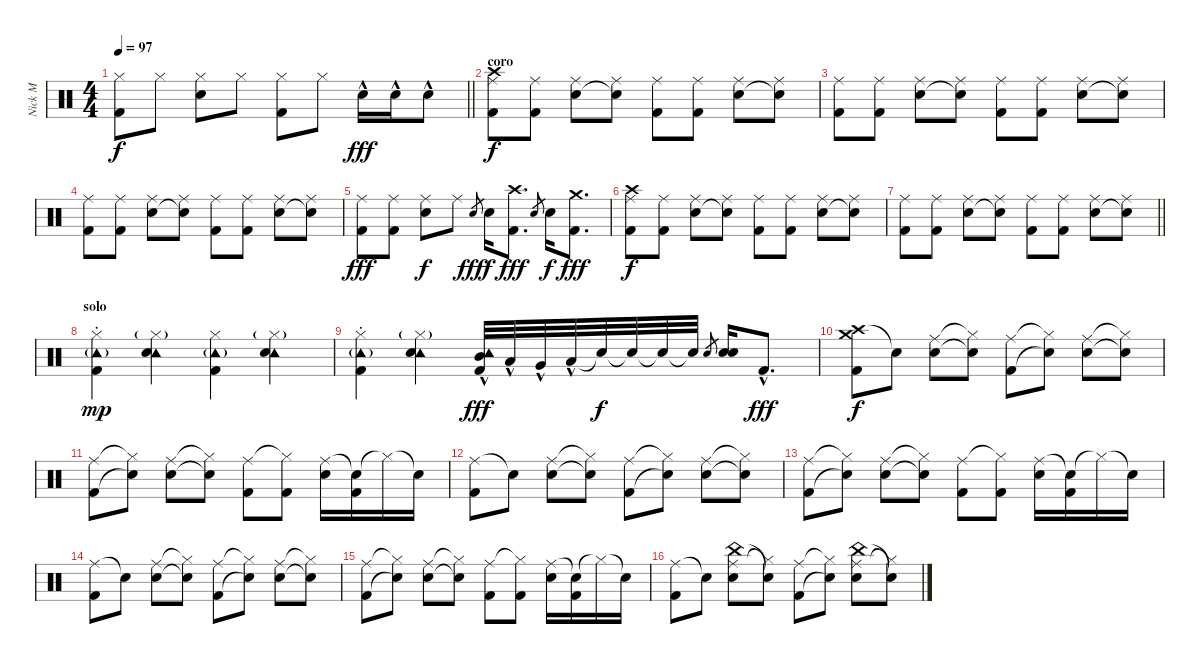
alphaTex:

\track ("Nick M" "Nick M") {instrument percussion}
\staff {score}
\articulation defaults
\ts (4 4)
\tempo 97
\clef neutral
\barLineRight lightlight
\ks c
("Hi-Hat (closed)" "Kick (hit) 2").8{dy f} "Hi-Hat (closed)".8 ("Hi-Hat (closed)" "Snare (hit) 2").8 "Hi-Hat (closed)".8 ("Hi-Hat (closed)" "Kick (hit) 2").8 "Hi-Hat (closed)".8 "Snare (hit) 2"{hac}.16{dy fff} "Snare (hit) 2"{hac}.16 "Snare (hit) 2"{hac}.8 |
\section ("" "coro")
("Ride (middle)" "Crash high (hit)" "Kick (hit) 2").8{dy f} ("Ride (middle)" "Kick (hit) 2").8 ("Ride (middle)" "Snare (hit) 2").8 ("Ride (middle)" "Snare (hit)"{t}).8 ("Ride (middle)" "Kick (hit) 2").8 ("Ride (middle)" "Kick (hit) 2").8 ("Ride (middle)" "Snare (hit) 2").8 ("Ride (middle)" "Snare (hit)"{t}).8 |
("Ride (middle)" "Kick (hit) 2").8 ("Ride (middle)" "Kick (hit) 2").8 ("Ride (middle)" "Snare (hit) 2").8 ("Ride (middle)" "Snare (hit)"{t}).8 ("Ride (middle)" "Kick (hit) 2").8 ("Ride (middle)" "Kick (hit) 2").8 ("Ride (middle)" "Snare (hit) 2").8 ("Ride (middle)" "Snare (hit)"{t}).8 |
("Ride (middle)" "Kick (hit) 2").8 ("Ride (middle)" "Kick (hit) 2").8 ("Ride (middle)" "Snare (hit) 2").8 ("Ride (middle)" "Snare (hit)"{t}).8 ("Ride (middle)" "Kick (hit) 2").8 ("Ride (middle)" "Kick (hit) 2").8 ("Ride (middle)" "Snare (hit) 2").8 ("Ride (middle)" "Snare (hit)"{t}).8 |
("Ride (middle)" "Kick (hit) 2").8{dy fff} ("Ride (middle)" "Kick (hit) 2").8 ("Ride (middle)" "Snare (hit) 2").8{dy f} "Ride (middle)".8 "Snare (hit) 2".8{gr dy fff} "Snare (hit) 2".16{dy f} ("Crash high (hit)" "Kick (hit) 2").8{d dy fff} "Snare (hit) 2".8{gr} "Snare (hit) 2".16{dy f} ("Crash medium (hit)" "Kick (hit) 2").8{d dy fff} |
("Ride (middle)" "Crash high (hit)" "Kick (hit) 2").8{dy f} ("Ride (middle)" "Kick (hit) 2").8 ("Ride (middle)" "Snare (hit) 2").8 ("Ride (middle)" "Snare (hit)"{t}).8 ("Ride (middle)" "Kick (hit) 2").8 ("Ride (middle)" "Kick (hit) 2").8 ("Ride (middle)" "Snare (hit) 2").8 ("Ride (middle)" "Snare (hit)"{t}).8 |
\barLineRight lightlight
("Ride (middle)" "Kick (hit) 2").8 ("Ride (middle)" "Kick (hit) 2").8 ("Ride (middle)" "Snare (hit) 2").8 ("Ride (middle)" "Snare (hit)"{t}).8 ("Ride (middle)" "Kick (hit) 2").8 ("Ride (middle)" "Kick (hit) 2").8 ("Ride (middle)" "Snare (hit) 2").8 ("Ride (middle)" "Snare (hit)"{t}).8 |
\section ("" "solo")
("Tambourine (hit)"{g st} "Hi-Hat (closed)" "Kick (hit) 2").4{dy mp} ("Tambourine (hit)" "Hi-Hat (closed)"{g} "Snare (hit) 2").4 ("Tambourine (hit)"{g} "Hi-Hat (closed)" "Kick (hit) 2").4 ("Tambourine (hit)" "Hi-Hat (closed)"{g} "Snare (hit) 2").4 |
("Tambourine (hit)"{g st} "Hi-Hat (closed)" "Kick (hit) 2").4 ("Tambourine (hit)" "Hi-Hat (closed)"{g} "Snare (hit) 2").4 ("Tambourine (hit)" "Mid Tom (hit)"{hac} "Kick (hit) 2").32{dy fff} "Low Tom (hit)"{hac}.32 "Very Low Tom (hit)"{hac}.32 "Low Floor Tom (hit)"{hac}.32 "Snare (hit)"{t}.32{dy f} "Snare (hit)"{t}.32 "Snare (hit)"{t}.32 "Snare (hit)"{t}.32 "Snare (hit) 2".8{gr} ("Snare (hit) 2" "Snare (hit) 2").16 "Kick (hit) 2"{hac}.8{d dy fff} |
("Crash high (hit)" "Crash medium (hit)" "Kick (hit) 2").8{dy f} "Snare (hit)"{t}.8 ("Ride (middle)" "Snare (hit) 2").8 ("Hi-Hat (closed)"{t} "Snare (hit)"{t}).8 ("Ride (middle)" "Kick (hit) 2").8 ("Hi-Hat (closed)"{t} "Snare (hit)"{t}).8 ("Ride (middle)" "Snare (hit) 2").8 ("Hi-Hat (closed)"{t} "Snare (hit)"{t}).8 |
("Ride (middle)" "Kick (hit) 2").8 ("Hi-Hat (closed)"{t} "Snare (hit)"{t}).8 ("Ride (middle)" "Snare (hit) 2").8 ("Hi-Hat (closed)"{t} "Snare (hit)"{t}).8 ("Ride (middle)" "Kick (hit) 2").8 ("Hi-Hat (closed)"{t} "Kick (hit) 2").8 ("Ride (middle)" "Snare (hit) 2").16 ("Snare (hit)"{t} "Kick (hit) 2").16 "Hi-Hat (closed)"{t}.16 "Snare (hit)"{t}.16 |
("Ride (middle)" "Kick (hit) 2").8 "Snare (hit)"{t}.8 ("Ride (middle)" "Snare (hit) 2").8 ("Hi-Hat (closed)"{t} "Snare (hit)"{t}).8 ("Ride (middle)" "Kick (hit) 2").8 ("Hi-Hat (closed)"{t} "Snare (hit)"{t}).8 ("Ride (middle)" "Snare (hit) 2").8 ("Hi-Hat (closed)"{t} "Snare (hit)"{t}).8 |
("Ride (middle)" "Kick (hit) 2").8 ("Hi-Hat (closed)"{t} "Snare (hit)"{t}).8 ("Ride (middle)" "Snare (hit) 2").8 ("Hi-Hat (closed)"{t} "Snare (hit)"{t}).8 ("Ride (middle)" "Kick (hit) 2").8 ("Hi-Hat (closed)"{t} "Kick (hit) 2").8 ("Ride (middle)" "Snare (hit) 2").16 ("Snare (hit)"{t} "Kick (hit) 2").16 "Hi-Hat (closed)"{t}.16 "Snare (hit)"{t}.16 |
("Ride (middle)" "Kick (hit) 2").8 "Snare (hit)"{t}.8 ("Ride (middle)" "Snare (hit) 2").8 ("Hi-Hat (closed)"{t} "Snare (hit)"{t}).8 ("Ride (middle)" "Kick (hit) 2").8 ("Hi-Hat (closed)"{t} "Snare (hit)"{t}).8 ("Ride (middle)" "Snare (hit) 2").8 ("Hi-Hat (closed)"{t} "Snare (hit)"{t}).8 |
("Ride (middle)" "Kick (hit) 2").8 ("Hi-Hat (closed)"{t} "Snare (hit)"{t}).8 ("Ride (middle)" "Snare (hit) 2").8 ("Hi-Hat (closed)"{t} "Snare (hit)"{t}).8 ("Ride (middle)" "Kick (hit) 2").8 ("Hi-Hat (closed)"{t} "Kick (hit) 2").8 ("Ride (middle)" "Snare (hit) 2").16 ("Snare (hit)"{t} "Kick (hit) 2").16 "Hi-Hat (closed)"{t}.16 "Snare (hit)"{t}.16 |
("Ride (middle)" "Kick (hit) 2").8 "Snare (hit)"{t}.8 ("Ride (middle)" "China (hit)" "Snare (hit) 2").8 ("Hi-Hat (closed)"{t} "Snare (hit)"{t}).8 ("Ride (middle)" "Kick (hit) 2").8 ("Hi-Hat (closed)"{t} "Snare (hit)"{t}).8 ("Ride (middle)" "China (hit)" "Snare (hit) 2").8 ("Hi-Hat (closed)"{t} "Snare (hit)"{t}).8
